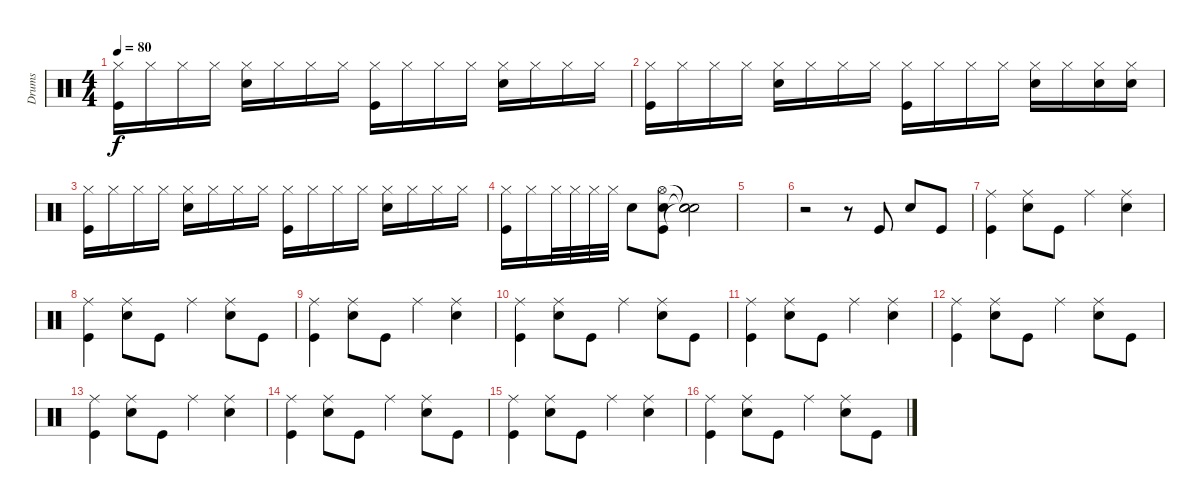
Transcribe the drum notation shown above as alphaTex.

\track ("Drums" "Drums") {instrument percussion}
\staff {score}
\articulation defaults
\ts (4 4)
\tempo 80
\clef neutral
\ks c
("Hi-Hat (closed)" "Kick (hit)").16{dy f} "Hi-Hat (closed)".16 "Hi-Hat (closed)".16 "Hi-Hat (closed)".16 ("Hi-Hat (closed)" "Snare (hit) 2").16 "Hi-Hat (closed)".16 "Hi-Hat (closed)".16 "Hi-Hat (closed)".16 ("Hi-Hat (closed)" "Kick (hit)").16 "Hi-Hat (closed)".16 "Hi-Hat (closed)".16 "Hi-Hat (closed)".16 ("Hi-Hat (closed)" "Snare (hit) 2").16 "Hi-Hat (closed)".16 "Hi-Hat (closed)".16 "Hi-Hat (closed)".16 |
("Hi-Hat (closed)" "Kick (hit)").16 "Hi-Hat (closed)".16 "Hi-Hat (closed)".16 "Hi-Hat (closed)".16 ("Hi-Hat (closed)" "Snare (hit) 2").16 "Hi-Hat (closed)".16 "Hi-Hat (closed)".16 "Hi-Hat (closed)".16 ("Hi-Hat (closed)" "Kick (hit)").16 "Hi-Hat (closed)".16 "Hi-Hat (closed)".16 "Hi-Hat (closed)".16 ("Hi-Hat (closed)" "Snare (hit) 2").16 "Hi-Hat (closed)".16 ("Hi-Hat (closed)" "Snare (hit) 2").16 ("Hi-Hat (closed)" "Snare (hit) 2").16 |
("Hi-Hat (closed)" "Kick (hit)").16 "Hi-Hat (closed)".16 "Hi-Hat (closed)".16 "Hi-Hat (closed)".16 ("Hi-Hat (closed)" "Snare (hit) 2").16 "Hi-Hat (closed)".16 "Hi-Hat (closed)".16 "Hi-Hat (closed)".16 ("Hi-Hat (closed)" "Kick (hit)").16 "Hi-Hat (closed)".16 "Hi-Hat (closed)".16 "Hi-Hat (closed)".16 ("Hi-Hat (closed)" "Snare (hit) 2").16 "Hi-Hat (closed)".16 "Hi-Hat (closed)".16 "Hi-Hat (closed)".16 |
("Hi-Hat (closed)" "Kick (hit)").16 "Hi-Hat (closed)".16 "Hi-Hat (closed)".32 "Hi-Hat (closed)".32 "Hi-Hat (closed)".32 "Hi-Hat (closed)".32 "Snare (hit) 2".8 ("Hi-Hat (open)" "Snare (hit) 2" "Kick (hit)").8 ("Snare (hit)"{t} "Snare (hit)"{t} "Snare (hit)"{t}).2 |
|
r.2 r.8 "Kick (hit)".8 "Snare (hit) 2".8 "Kick (hit)".8 |
("Ride (middle)" "Kick (hit)").4 ("Ride (middle)" "Snare (hit) 2").8 "Kick (hit)".8 "Ride (middle)".4 ("Ride (middle)" "Snare (hit) 2").4 |
("Ride (middle)" "Kick (hit)").4 ("Ride (middle)" "Snare (hit) 2").8 "Kick (hit)".8 "Ride (middle)".4 ("Ride (middle)" "Snare (hit) 2").8 "Kick (hit)".8 |
("Ride (middle)" "Kick (hit)").4 ("Ride (middle)" "Snare (hit) 2").8 "Kick (hit)".8 "Ride (middle)".4 ("Ride (middle)" "Snare (hit) 2").4 |
("Ride (middle)" "Kick (hit)").4 ("Ride (middle)" "Snare (hit) 2").8 "Kick (hit)".8 "Ride (middle)".4 ("Ride (middle)" "Snare (hit) 2").8 "Kick (hit)".8 |
("Ride (middle)" "Kick (hit)").4 ("Ride (middle)" "Snare (hit) 2").8 "Kick (hit)".8 "Ride (middle)".4 ("Ride (middle)" "Snare (hit) 2").4 |
("Ride (middle)" "Kick (hit)").4 ("Ride (middle)" "Snare (hit) 2").8 "Kick (hit)".8 "Ride (middle)".4 ("Ride (middle)" "Snare (hit) 2").8 "Kick (hit)".8 |
("Ride (middle)" "Kick (hit)").4 ("Ride (middle)" "Snare (hit) 2").8 "Kick (hit)".8 "Ride (middle)".4 ("Ride (middle)" "Snare (hit) 2").4 |
("Ride (middle)" "Kick (hit)").4 ("Ride (middle)" "Snare (hit) 2").8 "Kick (hit)".8 "Ride (middle)".4 ("Ride (middle)" "Snare (hit) 2").8 "Kick (hit)".8 |
("Ride (middle)" "Kick (hit)").4 ("Ride (middle)" "Snare (hit) 2").8 "Kick (hit)".8 "Ride (middle)".4 ("Ride (middle)" "Snare (hit) 2").4 |
("Ride (middle)" "Kick (hit)").4 ("Ride (middle)" "Snare (hit) 2").8 "Kick (hit)".8 "Ride (middle)".4 ("Ride (middle)" "Snare (hit) 2").8 "Kick (hit)".8
